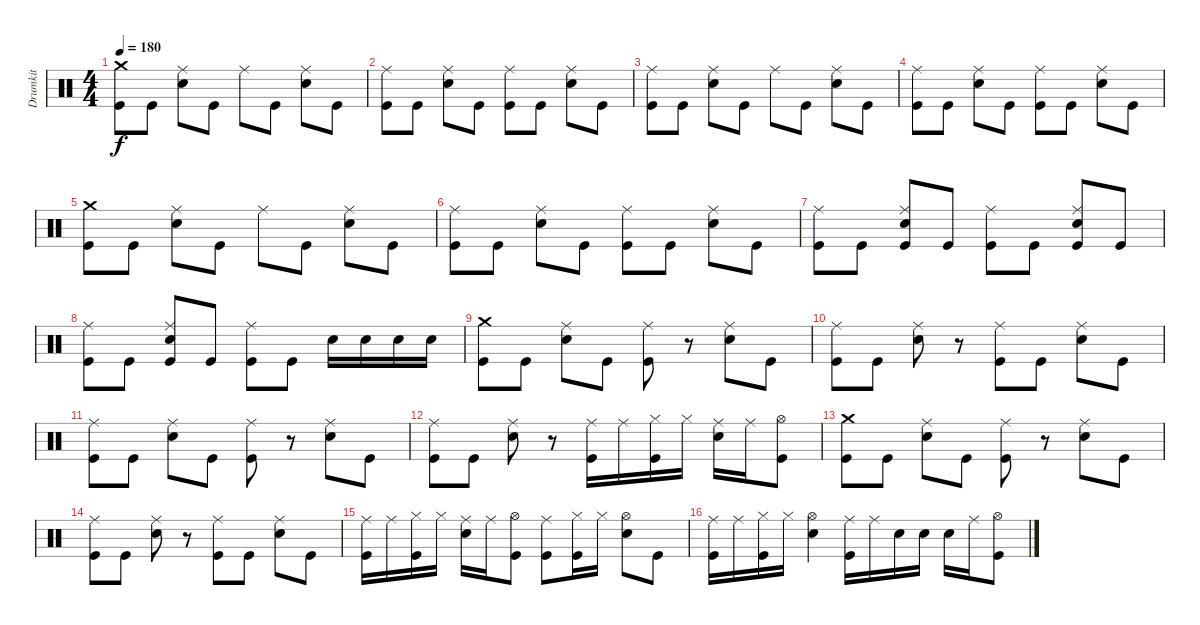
\track ("Drumkit" "Drumkit") {instrument percussion}
\staff {score}
\articulation defaults
\ts (4 4)
\tempo 180
\clef neutral
\ks c
("Crash medium (hit)" "Kick (hit)").8{dy f} "Kick (hit)".8 ("Ride (middle)" "Snare (hit) 2").8 "Kick (hit)".8 "Ride (middle)".8 "Kick (hit)".8 ("Ride (middle)" "Snare (hit) 2").8 "Kick (hit)".8 |
("Ride (middle)" "Kick (hit)").8 "Kick (hit)".8 ("Ride (middle)" "Snare (hit) 2").8 "Kick (hit)".8 ("Ride (middle)" "Kick (hit)").8 "Kick (hit)".8 ("Ride (middle)" "Snare (hit) 2").8 "Kick (hit)".8 |
("Ride (middle)" "Kick (hit)").8 "Kick (hit)".8 ("Ride (middle)" "Snare (hit) 2").8 "Kick (hit)".8 "Ride (middle)".8 "Kick (hit)".8 ("Ride (middle)" "Snare (hit) 2").8 "Kick (hit)".8 |
("Ride (middle)" "Kick (hit)").8 "Kick (hit)".8 ("Ride (middle)" "Snare (hit) 2").8 "Kick (hit)".8 ("Ride (middle)" "Kick (hit)").8 "Kick (hit)".8 ("Ride (middle)" "Snare (hit) 2").8 "Kick (hit)".8 |
("Crash medium (hit)" "Kick (hit)").8 "Kick (hit)".8 ("Ride (middle)" "Snare (hit) 2").8 "Kick (hit)".8 "Ride (middle)".8 "Kick (hit)".8 ("Ride (middle)" "Snare (hit) 2").8 "Kick (hit)".8 |
("Ride (middle)" "Kick (hit)").8 "Kick (hit)".8 ("Ride (middle)" "Snare (hit) 2").8 "Kick (hit)".8 ("Ride (middle)" "Kick (hit)").8 "Kick (hit)".8 ("Ride (middle)" "Snare (hit) 2").8 "Kick (hit)".8 |
("Ride (middle)" "Kick (hit)").8 "Kick (hit)".8 ("Ride (middle)" "Snare (hit) 2" "Kick (hit)").8 "Kick (hit)".8 ("Ride (middle)" "Kick (hit)").8 "Kick (hit)".8 ("Ride (middle)" "Snare (hit) 2" "Kick (hit)").8 "Kick (hit)".8 |
("Ride (middle)" "Kick (hit)").8 "Kick (hit)".8 ("Ride (middle)" "Snare (hit) 2" "Kick (hit)").8 "Kick (hit)".8 ("Ride (middle)" "Kick (hit)").8 "Kick (hit)".8 "Snare (hit) 2".16 "Snare (hit) 2".16 "Snare (hit) 2".16 "Snare (hit) 2".16 |
("Crash medium (hit)" "Kick (hit)").8 "Kick (hit)".8 ("Ride (middle)" "Snare (hit) 2").8 "Kick (hit)".8 ("Ride (middle)" "Kick (hit)").8 r.8 ("Ride (middle)" "Snare (hit) 2").8 "Kick (hit)".8 |
("Ride (middle)" "Kick (hit)").8 "Kick (hit)".8 ("Ride (middle)" "Snare (hit) 2").8 r.8 ("Ride (middle)" "Kick (hit)").8 "Kick (hit)".8 ("Ride (middle)" "Snare (hit) 2").8 "Kick (hit)".8 |
("Kick (hit)" "Ride (middle)").8 "Kick (hit)".8 ("Ride (middle)" "Snare (hit) 2").8 "Kick (hit)".8 ("Ride (middle)" "Kick (hit)").8 r.8 ("Ride (middle)" "Snare (hit) 2").8 "Kick (hit)".8 |
("Ride (middle)" "Kick (hit)").8 "Kick (hit)".8 ("Ride (middle)" "Snare (hit) 2").8 r.8 ("Ride (middle)" "Kick (hit)").16 "Ride (middle)".16 ("Kick (hit)" "Hi-Hat (closed)").16 "Hi-Hat (closed)".16 ("Ride (middle)" "Snare (hit) 2").16 "Ride (middle)".16 ("Kick (hit)" "Hi-Hat (open)").8 |
("Crash medium (hit)" "Kick (hit)").8 "Kick (hit)".8 ("Ride (middle)" "Snare (hit) 2").8 "Kick (hit)".8 ("Ride (middle)" "Kick (hit)").8 r.8 ("Ride (middle)" "Snare (hit) 2").8 "Kick (hit)".8 |
("Ride (middle)" "Kick (hit)").8 "Kick (hit)".8 ("Ride (middle)" "Snare (hit) 2").8 r.8 ("Ride (middle)" "Kick (hit)").8 "Kick (hit)".8 ("Ride (middle)" "Snare (hit) 2").8 "Kick (hit)".8 |
("Ride (middle)" "Kick (hit)").16 "Ride (middle)".16 ("Kick (hit)" "Hi-Hat (closed)").16 "Hi-Hat (closed)".16 ("Ride (middle)" "Snare (hit) 2").16 "Ride (middle)".16 ("Kick (hit)" "Hi-Hat (open)").8 ("Ride (middle)" "Kick (hit)").8 ("Kick (hit)" "Hi-Hat (closed)").16 "Hi-Hat (closed)".16 ("Snare (hit) 2" "Hi-Hat (open)").8 "Kick (hit)".8 |
("Ride (middle)" "Kick (hit)").16 "Ride (middle)".16 ("Kick (hit)" "Hi-Hat (closed)").16 "Hi-Hat (closed)".16 ("Snare (hit) 2" "Hi-Hat (open)").4 ("Ride (middle)" "Kick (hit)").16 "Ride (middle)".16 "Snare (hit) 2".16 "Snare (hit) 2".16 "Snare (hit) 2".16 "Ride (middle)".16 ("Kick (hit)" "Hi-Hat (open)").8
